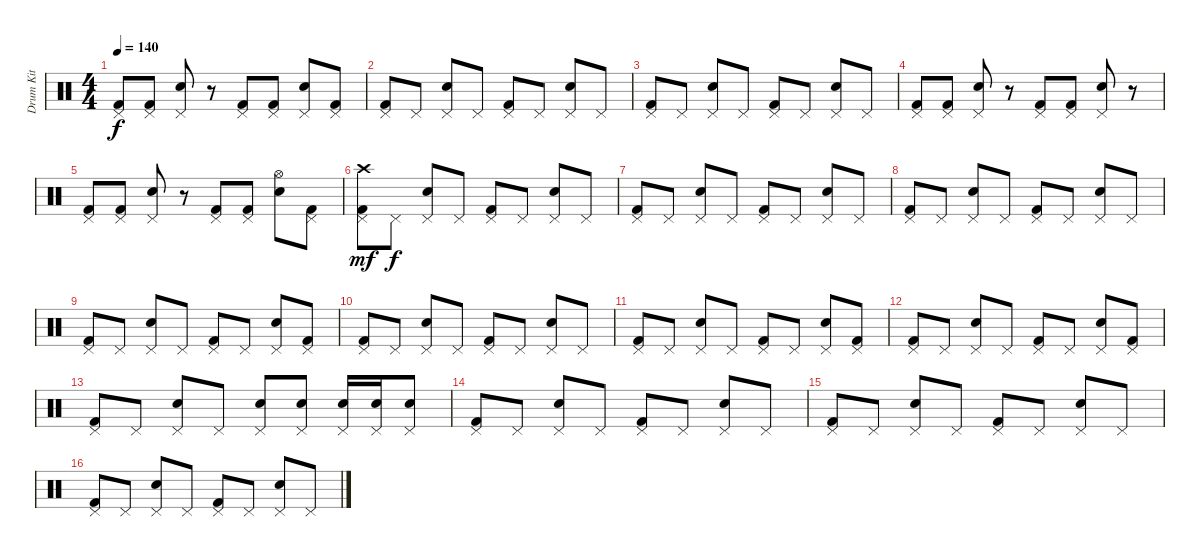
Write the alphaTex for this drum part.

\track ("Drum Kit" "Drum Kit") {instrument percussion}
\staff {score}
\articulation defaults
\ts (4 4)
\tempo 140
\clef neutral
\ks c
("Pedal Hi-Hat (hit)" "Kick (hit) 2").8{dy f} ("Pedal Hi-Hat (hit)" "Kick (hit) 2").8 ("Pedal Hi-Hat (hit)" "Electric Snare (hit)").8 r.8 ("Pedal Hi-Hat (hit)" "Kick (hit) 2").8 ("Pedal Hi-Hat (hit)" "Kick (hit) 2").8 ("Pedal Hi-Hat (hit)" "Electric Snare (hit)").8 ("Pedal Hi-Hat (hit)" "Kick (hit) 2").8 |
("Pedal Hi-Hat (hit)" "Kick (hit) 2").8 "Pedal Hi-Hat (hit)".8 ("Pedal Hi-Hat (hit)" "Electric Snare (hit)").8 "Pedal Hi-Hat (hit)".8 ("Pedal Hi-Hat (hit)" "Kick (hit) 2").8 "Pedal Hi-Hat (hit)".8 ("Pedal Hi-Hat (hit)" "Electric Snare (hit)").8 "Pedal Hi-Hat (hit)".8 |
("Pedal Hi-Hat (hit)" "Kick (hit) 2").8 "Pedal Hi-Hat (hit)".8 ("Pedal Hi-Hat (hit)" "Electric Snare (hit)").8 "Pedal Hi-Hat (hit)".8 ("Pedal Hi-Hat (hit)" "Kick (hit) 2").8 "Pedal Hi-Hat (hit)".8 ("Pedal Hi-Hat (hit)" "Electric Snare (hit)").8 "Pedal Hi-Hat (hit)".8 |
("Pedal Hi-Hat (hit)" "Kick (hit) 2").8 ("Pedal Hi-Hat (hit)" "Kick (hit) 2").8 ("Pedal Hi-Hat (hit)" "Electric Snare (hit)").8 r.8 ("Pedal Hi-Hat (hit)" "Kick (hit) 2").8 ("Pedal Hi-Hat (hit)" "Kick (hit) 2").8 ("Pedal Hi-Hat (hit)" "Electric Snare (hit)").8 r.8 |
("Pedal Hi-Hat (hit)" "Kick (hit) 2").8 ("Pedal Hi-Hat (hit)" "Kick (hit) 2").8 ("Pedal Hi-Hat (hit)" "Electric Snare (hit)").8 r.8 ("Pedal Hi-Hat (hit)" "Kick (hit) 2").8 ("Pedal Hi-Hat (hit)" "Kick (hit) 2").8 ("Hi-Hat (open)" "Electric Snare (hit)").8 ("Pedal Hi-Hat (hit)" "Kick (hit) 2").8 |
("Crash high (hit)" "Pedal Hi-Hat (hit)" "Kick (hit) 2").8{dy mf} "Pedal Hi-Hat (hit)".8{dy f} ("Pedal Hi-Hat (hit)" "Electric Snare (hit)").8 "Pedal Hi-Hat (hit)".8 ("Pedal Hi-Hat (hit)" "Kick (hit) 2").8 "Pedal Hi-Hat (hit)".8 ("Pedal Hi-Hat (hit)" "Electric Snare (hit)").8 "Pedal Hi-Hat (hit)".8 |
("Pedal Hi-Hat (hit)" "Kick (hit) 2").8 "Pedal Hi-Hat (hit)".8 ("Pedal Hi-Hat (hit)" "Electric Snare (hit)").8 "Pedal Hi-Hat (hit)".8 ("Pedal Hi-Hat (hit)" "Kick (hit) 2").8 "Pedal Hi-Hat (hit)".8 ("Pedal Hi-Hat (hit)" "Electric Snare (hit)").8 "Pedal Hi-Hat (hit)".8 |
("Pedal Hi-Hat (hit)" "Kick (hit) 2").8 "Pedal Hi-Hat (hit)".8 ("Pedal Hi-Hat (hit)" "Electric Snare (hit)").8 "Pedal Hi-Hat (hit)".8 ("Pedal Hi-Hat (hit)" "Kick (hit) 2").8 "Pedal Hi-Hat (hit)".8 ("Pedal Hi-Hat (hit)" "Electric Snare (hit)").8 "Pedal Hi-Hat (hit)".8 |
("Pedal Hi-Hat (hit)" "Kick (hit) 2").8 "Pedal Hi-Hat (hit)".8 ("Pedal Hi-Hat (hit)" "Electric Snare (hit)").8 "Pedal Hi-Hat (hit)".8 ("Pedal Hi-Hat (hit)" "Kick (hit) 2").8 "Pedal Hi-Hat (hit)".8 ("Pedal Hi-Hat (hit)" "Electric Snare (hit)").8 ("Pedal Hi-Hat (hit)" "Kick (hit) 2").8 |
("Pedal Hi-Hat (hit)" "Kick (hit) 2").8 "Pedal Hi-Hat (hit)".8 ("Pedal Hi-Hat (hit)" "Electric Snare (hit)").8 "Pedal Hi-Hat (hit)".8 ("Pedal Hi-Hat (hit)" "Kick (hit) 2").8 "Pedal Hi-Hat (hit)".8 ("Pedal Hi-Hat (hit)" "Electric Snare (hit)").8 "Pedal Hi-Hat (hit)".8 |
("Pedal Hi-Hat (hit)" "Kick (hit) 2").8 "Pedal Hi-Hat (hit)".8 ("Pedal Hi-Hat (hit)" "Electric Snare (hit)").8 "Pedal Hi-Hat (hit)".8 ("Pedal Hi-Hat (hit)" "Kick (hit) 2").8 "Pedal Hi-Hat (hit)".8 ("Pedal Hi-Hat (hit)" "Electric Snare (hit)").8 ("Pedal Hi-Hat (hit)" "Kick (hit) 2").8 |
("Pedal Hi-Hat (hit)" "Kick (hit) 2").8 "Pedal Hi-Hat (hit)".8 ("Pedal Hi-Hat (hit)" "Electric Snare (hit)").8 "Pedal Hi-Hat (hit)".8 ("Pedal Hi-Hat (hit)" "Kick (hit) 2").8 "Pedal Hi-Hat (hit)".8 ("Pedal Hi-Hat (hit)" "Electric Snare (hit)").8 ("Pedal Hi-Hat (hit)" "Kick (hit) 2").8 |
("Pedal Hi-Hat (hit)" "Kick (hit) 2").8 "Pedal Hi-Hat (hit)".8 ("Pedal Hi-Hat (hit)" "Electric Snare (hit)").8 "Pedal Hi-Hat (hit)".8 ("Pedal Hi-Hat (hit)" "Electric Snare (hit)").8 ("Pedal Hi-Hat (hit)" "Electric Snare (hit)").8 ("Pedal Hi-Hat (hit)" "Electric Snare (hit)").16 ("Pedal Hi-Hat (hit)" "Electric Snare (hit)").16 ("Pedal Hi-Hat (hit)" "Electric Snare (hit)").8 |
("Pedal Hi-Hat (hit)" "Kick (hit) 2").8 "Pedal Hi-Hat (hit)".8 ("Pedal Hi-Hat (hit)" "Electric Snare (hit)").8 "Pedal Hi-Hat (hit)".8 ("Pedal Hi-Hat (hit)" "Kick (hit) 2").8 "Pedal Hi-Hat (hit)".8 ("Pedal Hi-Hat (hit)" "Electric Snare (hit)").8 "Pedal Hi-Hat (hit)".8 |
("Pedal Hi-Hat (hit)" "Kick (hit) 2").8 "Pedal Hi-Hat (hit)".8 ("Pedal Hi-Hat (hit)" "Electric Snare (hit)").8 "Pedal Hi-Hat (hit)".8 ("Pedal Hi-Hat (hit)" "Kick (hit) 2").8 "Pedal Hi-Hat (hit)".8 ("Pedal Hi-Hat (hit)" "Electric Snare (hit)").8 "Pedal Hi-Hat (hit)".8 |
("Pedal Hi-Hat (hit)" "Kick (hit) 2").8 "Pedal Hi-Hat (hit)".8 ("Pedal Hi-Hat (hit)" "Electric Snare (hit)").8 "Pedal Hi-Hat (hit)".8 ("Pedal Hi-Hat (hit)" "Kick (hit) 2").8 "Pedal Hi-Hat (hit)".8 ("Pedal Hi-Hat (hit)" "Electric Snare (hit)").8 "Pedal Hi-Hat (hit)".8
